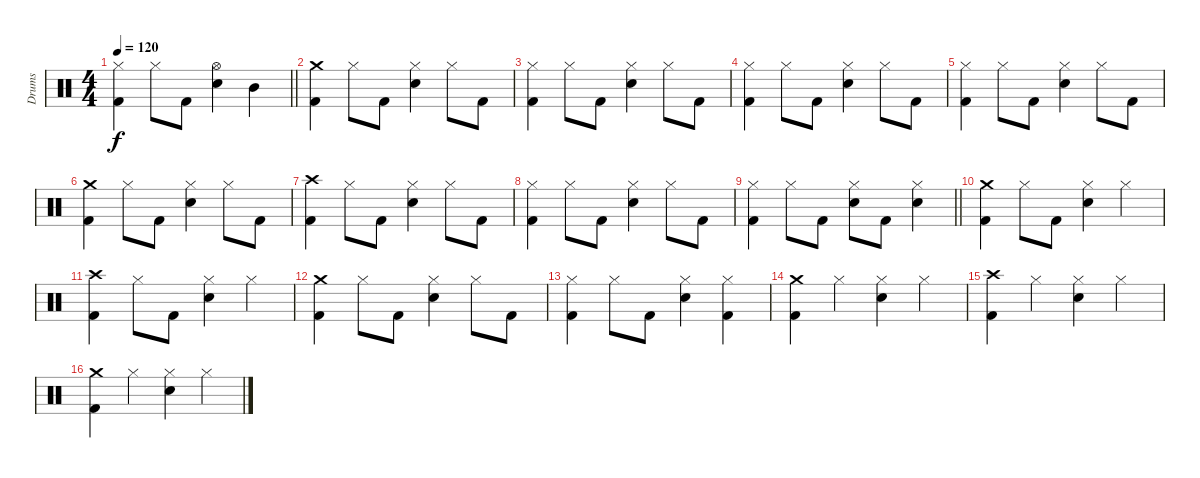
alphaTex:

\track ("Drums" "Drums") {instrument percussion}
\staff {score}
\articulation defaults
\ts (4 4)
\tempo 120
\clef neutral
\barLineRight lightlight
\ks c
("Hi-Hat (closed)" "Kick (hit) 2").4{dy f} "Hi-Hat (closed)".8 "Kick (hit) 2".8 ("Hi-Hat (open)" "Electric Snare (hit)").4 "Mid Tom (hit)".4 |
("Crash medium (hit)" "Kick (hit) 2").4 "Hi-Hat (closed)".8 "Kick (hit) 2".8 ("Hi-Hat (closed)" "Electric Snare (hit)").4 "Hi-Hat (closed)".8 "Kick (hit) 2".8 |
("Hi-Hat (closed)" "Kick (hit) 2").4 "Hi-Hat (closed)".8 "Kick (hit) 2".8 ("Hi-Hat (closed)" "Electric Snare (hit)").4 "Hi-Hat (closed)".8 "Kick (hit) 2".8 |
("Hi-Hat (closed)" "Kick (hit) 2").4 "Hi-Hat (closed)".8 "Kick (hit) 2".8 ("Hi-Hat (closed)" "Electric Snare (hit)").4 "Hi-Hat (closed)".8 "Kick (hit) 2".8 |
("Hi-Hat (closed)" "Kick (hit) 2").4 "Hi-Hat (closed)".8 "Kick (hit) 2".8 ("Hi-Hat (closed)" "Electric Snare (hit)").4 "Hi-Hat (closed)".8 "Kick (hit) 2".8 |
("Crash medium (hit)" "Kick (hit) 2").4 "Hi-Hat (closed)".8 "Kick (hit) 2".8 ("Hi-Hat (closed)" "Electric Snare (hit)").4 "Hi-Hat (closed)".8 "Kick (hit) 2".8 |
("Crash high (hit)" "Kick (hit) 2").4 "Hi-Hat (closed)".8 "Kick (hit) 2".8 ("Hi-Hat (closed)" "Electric Snare (hit)").4 "Hi-Hat (closed)".8 "Kick (hit) 2".8 |
("Hi-Hat (closed)" "Kick (hit) 2").4 "Hi-Hat (closed)".8 "Kick (hit) 2".8 ("Hi-Hat (closed)" "Electric Snare (hit)").4 "Hi-Hat (closed)".8 "Kick (hit) 2".8 |
\barLineRight lightlight
("Hi-Hat (closed)" "Kick (hit) 2").4 "Hi-Hat (closed)".8 "Kick (hit) 2".8 ("Hi-Hat (closed)" "Electric Snare (hit)").8 "Kick (hit) 2".8 ("Hi-Hat (closed)" "Electric Snare (hit)").4 |
("Crash medium (hit)" "Kick (hit) 2").4 "Hi-Hat (closed)".8 "Kick (hit) 2".8 ("Hi-Hat (closed)" "Electric Snare (hit)").4 "Hi-Hat (closed)".4 |
("Crash high (hit)" "Kick (hit) 2").4 "Hi-Hat (closed)".8 "Kick (hit) 2".8 ("Hi-Hat (closed)" "Electric Snare (hit)").4 "Hi-Hat (closed)".4 |
("Crash medium (hit)" "Kick (hit) 2").4 "Hi-Hat (closed)".8 "Kick (hit) 2".8 ("Hi-Hat (closed)" "Electric Snare (hit)").4 "Hi-Hat (closed)".8 "Kick (hit) 2".8 |
("Hi-Hat (closed)" "Kick (hit) 2").4 "Hi-Hat (closed)".8 "Kick (hit) 2".8 ("Hi-Hat (closed)" "Electric Snare (hit)").4 ("Hi-Hat (closed)" "Kick (hit) 2").4 |
("Crash medium (hit)" "Kick (hit) 2").4 "Hi-Hat (closed)".4 ("Hi-Hat (closed)" "Electric Snare (hit)").4 "Hi-Hat (closed)".4 |
("Crash high (hit)" "Kick (hit) 2").4 "Hi-Hat (closed)".4 ("Hi-Hat (closed)" "Electric Snare (hit)").4 "Hi-Hat (closed)".4 |
("Crash medium (hit)" "Kick (hit) 2").4 "Hi-Hat (closed)".4 ("Hi-Hat (closed)" "Electric Snare (hit)").4 "Hi-Hat (closed)".4
